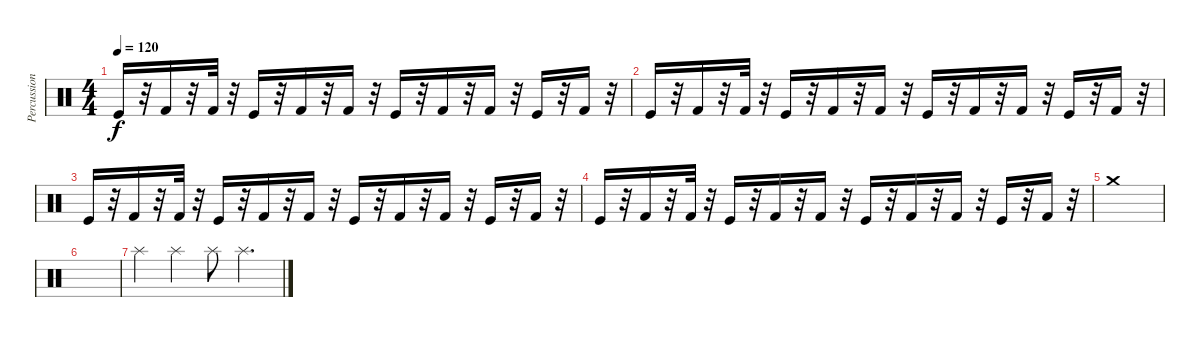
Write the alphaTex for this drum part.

\track ("Percussioni" "Percussion") {instrument percussion}
\staff {score}
\articulation defaults
\ts (4 4)
\tempo 120
\clef neutral
\ks c "Kick (hit)".16{dy f}
r.32 "Kick (hit) 2".16 r.32 "Kick (hit) 2".32 r.32 "Kick (hit)".16 r.32 "Kick (hit) 2".16 r.32 "Kick (hit) 2".16 r.32 "Kick (hit)".16 r.32 "Kick (hit) 2".16 r.32 "Kick (hit) 2".16 r.32 "Kick (hit)".16 r.32 "Kick (hit) 2".16 r.32 |
"Kick (hit)".16 r.32 "Kick (hit) 2".16 r.32 "Kick (hit) 2".32 r.32 "Kick (hit)".16 r.32 "Kick (hit) 2".16 r.32 "Kick (hit) 2".16 r.32 "Kick (hit)".16 r.32 "Kick (hit) 2".16 r.32 "Kick (hit) 2".16 r.32 "Kick (hit)".16 r.32 "Kick (hit) 2".16 r.32 |
"Kick (hit)".16 r.32 "Kick (hit) 2".16 r.32 "Kick (hit) 2".32 r.32 "Kick (hit)".16 r.32 "Kick (hit) 2".16 r.32 "Kick (hit) 2".16 r.32 "Kick (hit)".16 r.32 "Kick (hit) 2".16 r.32 "Kick (hit) 2".16 r.32 "Kick (hit)".16 r.32 "Kick (hit) 2".16 r.32 |
"Kick (hit)".16 r.32 "Kick (hit) 2".16 r.32 "Kick (hit) 2".32 r.32 "Kick (hit)".16 r.32 "Kick (hit) 2".16 r.32 "Kick (hit) 2".16 r.32 "Kick (hit)".16 r.32 "Kick (hit) 2".16 r.32 "Kick (hit) 2".16 r.32 "Kick (hit)".16 r.32 "Kick (hit) 2".16 r.32 |
"Crash medium (hit)".1 |
|
"Splash (hit)".4 "Splash (hit)".4 "Splash (hit)".8 "Splash (hit)".4{d}
